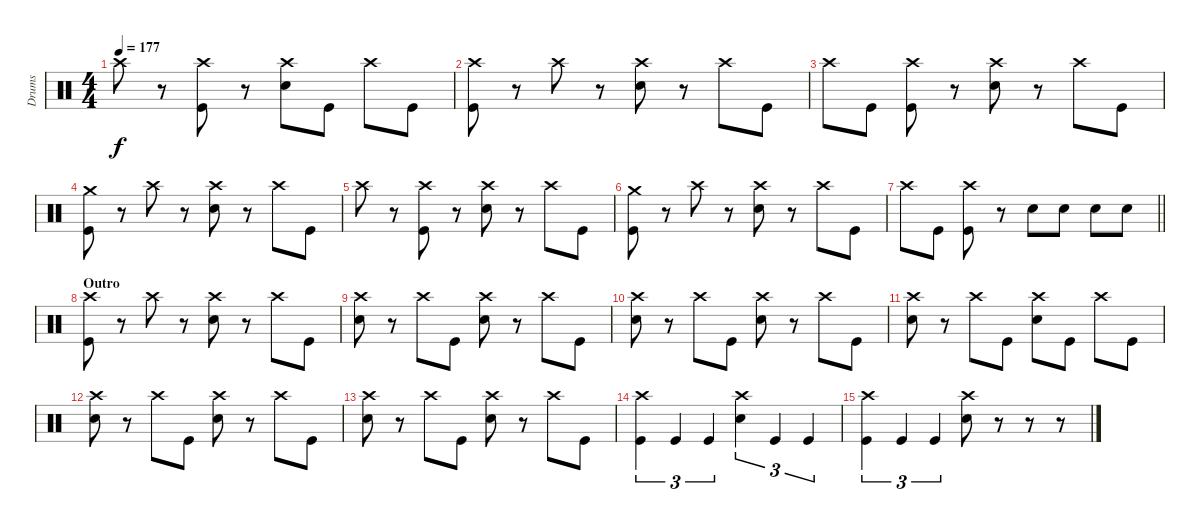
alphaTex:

\track ("Drums" "Drums") {instrument percussion}
\staff {score}
\articulation defaults
\ts (4 4)
\tempo 177
\clef neutral
\ks c "Crash high (hit)".8{dy f}
r.8 ("Crash high (hit)" "Kick (hit)").8 r.8 ("Crash high (hit)" "Snare (hit) 2").8 "Kick (hit)".8 "Crash high (hit)".8 "Kick (hit)".8 |
("Crash high (hit)" "Kick (hit)").8 r.8 "Crash high (hit)".8 r.8 ("Crash high (hit)" "Snare (hit) 2").8 r.8 "Crash high (hit)".8 "Kick (hit)".8 |
"Crash high (hit)".8 "Kick (hit)".8 ("Crash high (hit)" "Kick (hit)").8 r.8 ("Crash high (hit)" "Snare (hit) 2").8 r.8 "Crash high (hit)".8 "Kick (hit)".8 |
("Crash medium (hit)" "Kick (hit)").8 r.8 "Crash high (hit)".8 r.8 ("Crash high (hit)" "Snare (hit) 2").8 r.8 "Crash high (hit)".8 "Kick (hit)".8 |
"Crash high (hit)".8 r.8 ("Crash high (hit)" "Kick (hit)").8 r.8 ("Crash high (hit)" "Snare (hit) 2").8 r.8 "Crash high (hit)".8 "Kick (hit)".8 |
("Crash medium (hit)" "Kick (hit)").8 r.8 "Crash high (hit)".8 r.8 ("Crash high (hit)" "Snare (hit) 2").8 r.8 "Crash high (hit)".8 "Kick (hit)".8 |
\barLineRight lightlight "Crash high (hit)".8 "Kick (hit)".8
("Crash high (hit)" "Kick (hit)").8 r.8 "Snare (hit) 2".8 "Snare (hit) 2".8 "Snare (hit) 2".8 "Snare (hit) 2".8 |
\section ("" "Outro")
("Crash high (hit)" "Kick (hit)").8 r.8 "Crash high (hit)".8 r.8 ("Crash high (hit)" "Snare (hit) 2").8 r.8 "Crash high (hit)".8 "Kick (hit)".8 |
("Crash high (hit)" "Snare (hit) 2").8 r.8 "Crash high (hit)".8 "Kick (hit)".8 ("Crash high (hit)" "Snare (hit) 2").8 r.8 "Crash high (hit)".8 "Kick (hit)".8 |
("Crash high (hit)" "Snare (hit) 2").8 r.8 "Crash high (hit)".8 "Kick (hit)".8 ("Crash high (hit)" "Snare (hit) 2").8 r.8 "Crash high (hit)".8 "Kick (hit)".8 |
("Crash high (hit)" "Snare (hit) 2").8 r.8 "Crash high (hit)".8 "Kick (hit)".8 ("Crash high (hit)" "Snare (hit) 2").8 "Kick (hit)".8 "Crash high (hit)".8 "Kick (hit)".8 |
("Crash high (hit)" "Snare (hit) 2").8 r.8 "Crash high (hit)".8 "Kick (hit)".8 ("Crash high (hit)" "Snare (hit) 2").8 r.8 "Crash high (hit)".8 "Kick (hit)".8 |
("Crash high (hit)" "Snare (hit) 2").8 r.8 "Crash high (hit)".8 "Kick (hit)".8 ("Crash high (hit)" "Snare (hit) 2").8 r.8 "Crash high (hit)".8 "Kick (hit)".8 |
("Crash high (hit)" "Kick (hit)").4{tu (3 2)} "Kick (hit)".4{tu (3 2)} "Kick (hit)".4{tu (3 2)} ("Crash high (hit)" "Snare (hit) 2").4{tu (3 2)} "Kick (hit)".4{tu (3 2)} "Kick (hit)".4{tu (3 2)} |
("Crash high (hit)" "Kick (hit)").4{tu (3 2)} "Kick (hit)".4{tu (3 2)} "Kick (hit)".4{tu (3 2)} ("Crash high (hit)" "Snare (hit) 2").8 r.8 r.8 r.8
